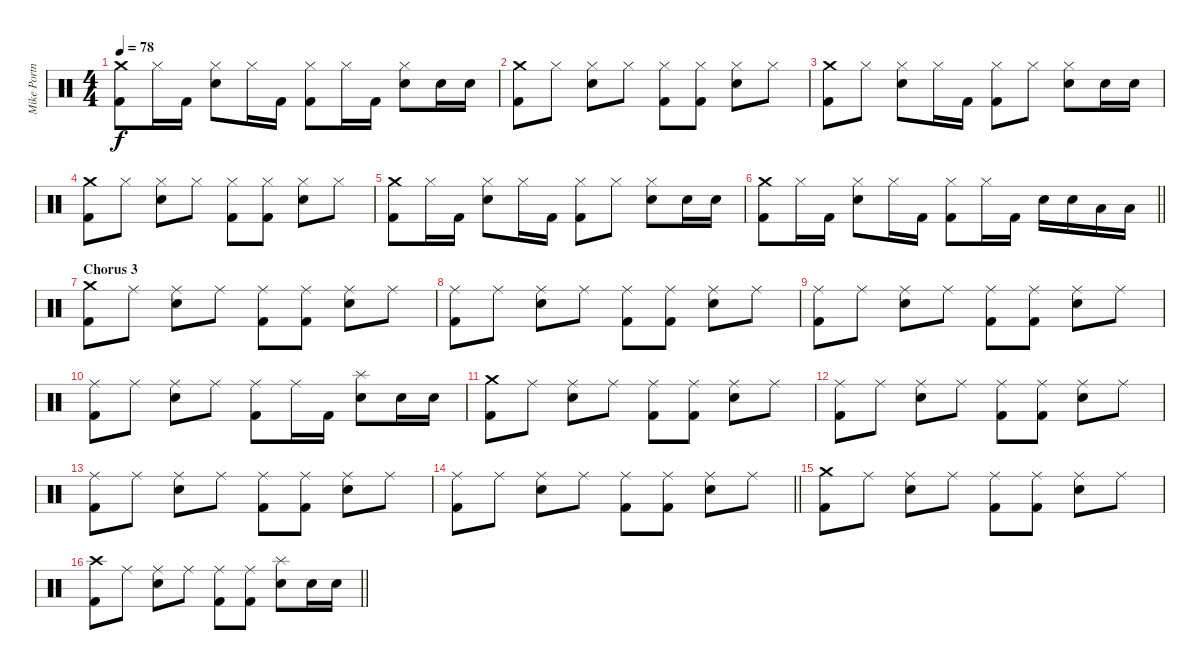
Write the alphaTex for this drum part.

\track ("Mike Portnoy" "Mike Portn") {instrument percussion}
\staff {score}
\articulation defaults
\ts (4 4)
\tempo 78
\clef neutral
\ks c
("Crash medium (hit)" "Kick (hit) 2").8{dy f} "Hi-Hat (closed)".16 "Kick (hit) 2".16 ("Hi-Hat (closed)" "Electric Snare (hit)").8 "Hi-Hat (closed)".16 "Kick (hit) 2".16 ("Hi-Hat (closed)" "Kick (hit) 2").8 "Hi-Hat (closed)".16 "Kick (hit) 2".16 ("Hi-Hat (closed)" "Electric Snare (hit)").8 "Electric Snare (hit)".16 "Electric Snare (hit)".16 |
("Crash medium (hit)" "Kick (hit) 2").8 "Hi-Hat (closed)".8 ("Hi-Hat (closed)" "Electric Snare (hit)").8 "Hi-Hat (closed)".8 ("Hi-Hat (closed)" "Kick (hit) 2").8 ("Hi-Hat (closed)" "Kick (hit) 2").8 ("Hi-Hat (closed)" "Electric Snare (hit)").8 "Hi-Hat (closed)".8 |
("Crash medium (hit)" "Kick (hit) 2").8 "Hi-Hat (closed)".8 ("Hi-Hat (closed)" "Electric Snare (hit)").8 "Hi-Hat (closed)".16 "Kick (hit) 2".16 ("Hi-Hat (closed)" "Kick (hit) 2").8 "Hi-Hat (closed)".8 ("Hi-Hat (closed)" "Electric Snare (hit)").8 "Electric Snare (hit)".16 "Electric Snare (hit)".16 |
("Crash medium (hit)" "Kick (hit) 2").8 "Hi-Hat (closed)".8 ("Hi-Hat (closed)" "Electric Snare (hit)").8 "Hi-Hat (closed)".8 ("Hi-Hat (closed)" "Kick (hit) 2").8 ("Hi-Hat (closed)" "Kick (hit) 2").8 ("Hi-Hat (closed)" "Electric Snare (hit)").8 "Hi-Hat (closed)".8 |
("Crash medium (hit)" "Kick (hit) 2").8 "Hi-Hat (closed)".16 "Kick (hit) 2".16 ("Hi-Hat (closed)" "Electric Snare (hit)").8 "Hi-Hat (closed)".16 "Kick (hit) 2".16 ("Hi-Hat (closed)" "Kick (hit) 2").8 "Hi-Hat (closed)".8 ("Hi-Hat (closed)" "Electric Snare (hit)").8 "Electric Snare (hit)".16 "Electric Snare (hit)".16 |
\barLineRight lightlight
("Crash medium (hit)" "Kick (hit) 2").8 "Hi-Hat (closed)".16 "Kick (hit) 2".16 ("Hi-Hat (closed)" "Electric Snare (hit)").8 "Hi-Hat (closed)".16 "Kick (hit) 2".16 ("Hi-Hat (closed)" "Kick (hit) 2").8 "Hi-Hat (closed)".16 "Kick (hit) 2".16 "Electric Snare (hit)".16 "Electric Snare (hit)".16 "Low Tom (hit)".16 "Low Tom (hit)".16 |
\section ("" "Chorus 3")
("Crash medium (hit)" "Kick (hit) 2").8 "Ride (middle)".8 ("Ride (middle)" "Electric Snare (hit)").8 "Ride (middle)".8 ("Ride (middle)" "Kick (hit) 2").8 ("Ride (middle)" "Kick (hit) 2").8 ("Ride (middle)" "Electric Snare (hit)").8 "Ride (middle)".8 |
("Ride (middle)" "Kick (hit) 2").8 "Ride (middle)".8 ("Ride (middle)" "Electric Snare (hit)").8 "Ride (middle)".8 ("Ride (middle)" "Kick (hit) 2").8 ("Ride (middle)" "Kick (hit) 2").8 ("Ride (middle)" "Electric Snare (hit)").8 "Ride (middle)".8 |
("Ride (middle)" "Kick (hit) 2").8 "Ride (middle)".8 ("Ride (middle)" "Electric Snare (hit)").8 "Ride (middle)".8 ("Ride (middle)" "Kick (hit) 2").8 ("Ride (middle)" "Kick (hit) 2").8 ("Ride (middle)" "Electric Snare (hit)").8 "Ride (middle)".8 |
("Ride (middle)" "Kick (hit) 2").8 "Ride (middle)".8 ("Ride (middle)" "Electric Snare (hit)").8 "Ride (middle)".8 ("Ride (middle)" "Kick (hit) 2").8 "Ride (middle)".16 "Kick (hit) 2".16 ("Splash (hit)" "Electric Snare (hit)").8 "Electric Snare (hit)".16 "Electric Snare (hit)".16 |
("Crash medium (hit)" "Kick (hit) 2").8 "Ride (middle)".8 ("Ride (middle)" "Electric Snare (hit)").8 "Ride (middle)".8 ("Ride (middle)" "Kick (hit) 2").8 ("Ride (middle)" "Kick (hit) 2").8 ("Ride (middle)" "Electric Snare (hit)").8 "Ride (middle)".8 |
("Ride (middle)" "Kick (hit) 2").8 "Ride (middle)".8 ("Ride (middle)" "Electric Snare (hit)").8 "Ride (middle)".8 ("Ride (middle)" "Kick (hit) 2").8 ("Ride (middle)" "Kick (hit) 2").8 ("Ride (middle)" "Electric Snare (hit)").8 "Ride (middle)".8 |
("Ride (middle)" "Kick (hit) 2").8 "Ride (middle)".8 ("Ride (middle)" "Electric Snare (hit)").8 "Ride (middle)".8 ("Ride (middle)" "Kick (hit) 2").8 ("Ride (middle)" "Kick (hit) 2").8 ("Ride (middle)" "Electric Snare (hit)").8 "Ride (middle)".8 |
\barLineRight lightlight
("Ride (middle)" "Kick (hit) 2").8 "Ride (middle)".8 ("Ride (middle)" "Electric Snare (hit)").8 "Ride (middle)".8 ("Ride (middle)" "Kick (hit) 2").8 ("Ride (middle)" "Kick (hit) 2").8 ("Ride (middle)" "Electric Snare (hit)").8 "Ride (middle)".8 |
("Crash medium (hit)" "Kick (hit) 2").8 "Ride (middle)".8 ("Ride (middle)" "Electric Snare (hit)").8 "Ride (middle)".8 ("Ride (middle)" "Kick (hit) 2").8 ("Ride (middle)" "Kick (hit) 2").8 ("Ride (middle)" "Electric Snare (hit)").8 "Ride (middle)".8 |
\barLineRight lightlight
("Crash high (hit)" "Kick (hit) 2").8 "Ride (middle)".8 ("Ride (middle)" "Electric Snare (hit)").8 "Ride (middle)".8 ("Ride (middle)" "Kick (hit) 2").8 ("Ride (middle)" "Kick (hit) 2").8 ("Splash (hit)" "Electric Snare (hit)").8 "Electric Snare (hit)".16 "Electric Snare (hit)".16
